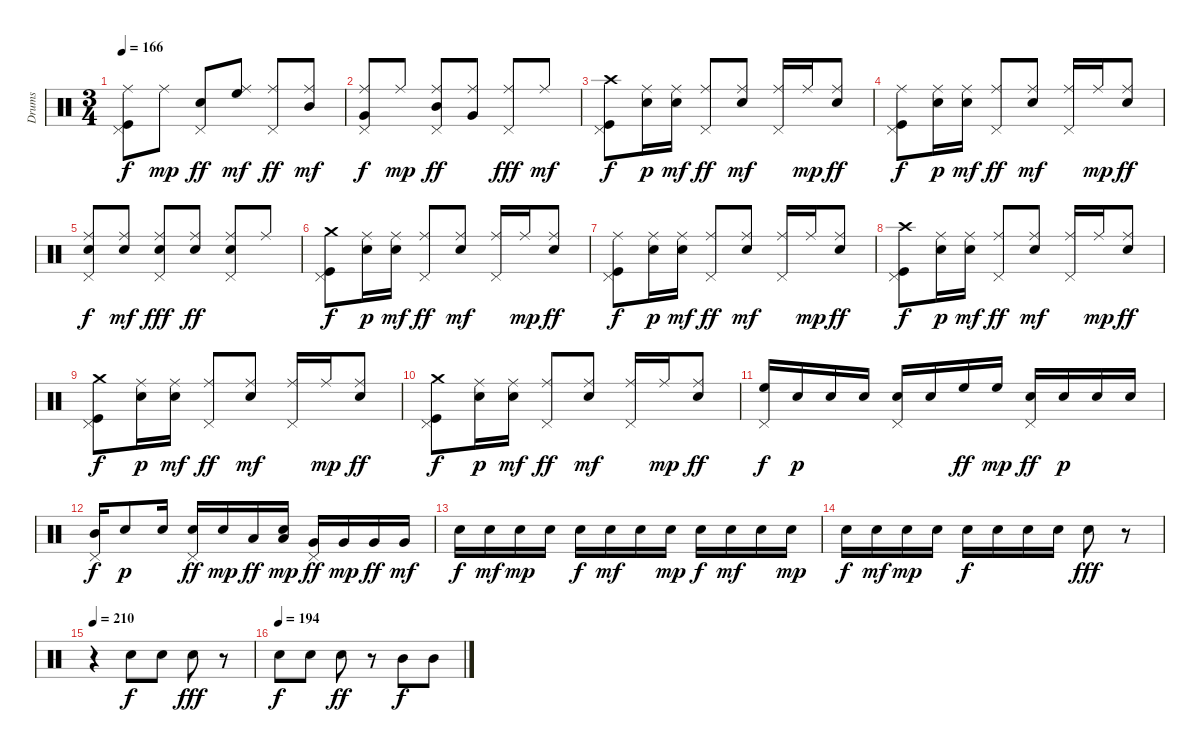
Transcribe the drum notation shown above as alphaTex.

\track ("Drums" "Drums") {instrument percussion}
\staff {score}
\articulation defaults
\ts (3 4)
\tempo 166
\clef neutral
\ks c
("Kick (hit)" "Pedal Hi-Hat (hit)" "Ride (middle)").8{dy f} "Ride (middle)".8{dy mp} ("Electric Snare (hit)" "Pedal Hi-Hat (hit)").8{dy ff} ("High Floor Tom (hit)" "Ride (middle)").8{dy mf} ("Pedal Hi-Hat (hit)" "Ride (middle)").8{dy ff} ("Mid Tom (hit)" "Ride (middle)").8{dy mf} |
("Very Low Tom (hit)" "Pedal Hi-Hat (hit)" "Ride (middle)").8{dy f} "Ride (middle)".8{dy mp} ("Mid Tom (hit)" "Pedal Hi-Hat (hit)" "Ride (middle)").8{dy ff} ("Very Low Tom (hit)" "Ride (middle)").8 ("Pedal Hi-Hat (hit)" "Ride (middle)").8{dy fff} "Ride (middle)".8{dy mf} |
("Kick (hit)" "Pedal Hi-Hat (hit)" "Crash high (hit)").8{dy f} ("Snare (hit) 2" "Ride (middle)").16{dy p} ("Snare (hit) 2" "Ride (middle)").16{dy mf} ("Pedal Hi-Hat (hit)" "Ride (middle)").8{dy ff} ("Electric Snare (hit)" "Ride (middle)").8{dy mf} ("Pedal Hi-Hat (hit)" "Ride (middle)").16 "Ride (middle)".16{dy mp} ("Snare (hit) 2" "Ride (middle)").8{dy ff} |
("Kick (hit)" "Pedal Hi-Hat (hit)" "Ride (middle)").8{dy f} ("Snare (hit) 2" "Ride (middle)").16{dy p} ("Snare (hit) 2" "Ride (middle)").16{dy mf} ("Pedal Hi-Hat (hit)" "Ride (middle)").8{dy ff} ("Electric Snare (hit)" "Ride (middle)").8{dy mf} ("Pedal Hi-Hat (hit)" "Ride (middle)").16 "Ride (middle)".16{dy mp} ("Snare (hit) 2" "Ride (middle)").8{dy ff} |
("Electric Snare (hit)" "Pedal Hi-Hat (hit)" "Ride (middle)").8{dy f} ("Electric Snare (hit)" "Ride (middle)").8{dy mf} ("Electric Snare (hit)" "Pedal Hi-Hat (hit)" "Ride (middle)").8{dy fff} ("Electric Snare (hit)" "Ride (middle)").8{dy ff} ("Electric Snare (hit)" "Pedal Hi-Hat (hit)" "Ride (middle)").8 "Ride (middle)".8 |
("Kick (hit)" "Pedal Hi-Hat (hit)" "Crash medium (hit)").8{dy f} ("Snare (hit) 2" "Ride (middle)").16{dy p} ("Snare (hit) 2" "Ride (middle)").16{dy mf} ("Pedal Hi-Hat (hit)" "Ride (middle)").8{dy ff} ("Electric Snare (hit)" "Ride (middle)").8{dy mf} ("Pedal Hi-Hat (hit)" "Ride (middle)").16 "Ride (middle)".16{dy mp} ("Snare (hit) 2" "Ride (middle)").8{dy ff} |
("Kick (hit)" "Pedal Hi-Hat (hit)" "Ride (middle)").8{dy f} ("Snare (hit) 2" "Ride (middle)").16{dy p} ("Snare (hit) 2" "Ride (middle)").16{dy mf} ("Pedal Hi-Hat (hit)" "Ride (middle)").8{dy ff} ("Electric Snare (hit)" "Ride (middle)").8{dy mf} ("Pedal Hi-Hat (hit)" "Ride (middle)").16 "Ride (middle)".16{dy mp} ("Snare (hit) 2" "Ride (middle)").8{dy ff} |
("Kick (hit)" "Pedal Hi-Hat (hit)" "Crash high (hit)").8{dy f} ("Snare (hit) 2" "Ride (middle)").16{dy p} ("Snare (hit) 2" "Ride (middle)").16{dy mf} ("Pedal Hi-Hat (hit)" "Ride (middle)").8{dy ff} ("Electric Snare (hit)" "Ride (middle)").8{dy mf} ("Pedal Hi-Hat (hit)" "Ride (middle)").16 "Ride (middle)".16{dy mp} ("Snare (hit) 2" "Ride (middle)").8{dy ff} |
("Kick (hit)" "Pedal Hi-Hat (hit)" "Crash medium (hit)").8{dy f} ("Snare (hit) 2" "Ride (middle)").16{dy p} ("Snare (hit) 2" "Ride (middle)").16{dy mf} ("Pedal Hi-Hat (hit)" "Ride (middle)").8{dy ff} ("Electric Snare (hit)" "Ride (middle)").8{dy mf} ("Pedal Hi-Hat (hit)" "Ride (middle)").16 "Ride (middle)".16{dy mp} ("Snare (hit) 2" "Ride (middle)").8{dy ff} |
("Kick (hit)" "Pedal Hi-Hat (hit)" "Crash medium (hit)").8{dy f} ("Snare (hit) 2" "Ride (middle)").16{dy p} ("Snare (hit) 2" "Ride (middle)").16{dy mf} ("Pedal Hi-Hat (hit)" "Ride (middle)").8{dy ff} ("Electric Snare (hit)" "Ride (middle)").8{dy mf} ("Pedal Hi-Hat (hit)" "Ride (middle)").16 "Ride (middle)".16{dy mp} ("Snare (hit) 2" "Ride (middle)").8{dy ff} |
("High Floor Tom (hit)" "Pedal Hi-Hat (hit)").16{dy f} "Snare (hit) 2".16{dy p} "Snare (hit) 2".16 "Snare (hit) 2".16 ("Snare (hit) 2" "Pedal Hi-Hat (hit)").16 "Snare (hit) 2".16 "High Floor Tom (hit)".16{dy ff} "High Floor Tom (hit)".16{dy mp} ("Snare (hit) 2" "Pedal Hi-Hat (hit)").16{dy ff} "Snare (hit) 2".16{dy p} "Snare (hit) 2".16 "Snare (hit) 2".16 |
("Mid Tom (hit)" "Pedal Hi-Hat (hit)").16{dy f} "Snare (hit) 2".8{dy p} "Snare (hit) 2".16 ("Snare (hit) 2" "Pedal Hi-Hat (hit)").16{dy ff} "Snare (hit) 2".16{dy mp} "Low Tom (hit)".16{dy ff} ("Snare (hit) 2" "Low Tom (hit)").16{dy mp} ("Very Low Tom (hit)" "Pedal Hi-Hat (hit)").16{dy ff} "Very Low Tom (hit)".16{dy mp} "Very Low Tom (hit)".16{dy ff} "Very Low Tom (hit)".16{dy mf} |
"Electric Snare (hit)".16{dy f} "Electric Snare (hit)".16{dy mf} "Electric Snare (hit)".16{dy mp} "Electric Snare (hit)".16 "Electric Snare (hit)".16{dy f} "Electric Snare (hit)".16{dy mf} "Electric Snare (hit)".16 "Electric Snare (hit)".16{dy mp} "Electric Snare (hit)".16{dy f} "Electric Snare (hit)".16{dy mf} "Electric Snare (hit)".16 "Electric Snare (hit)".16{dy mp} |
"Electric Snare (hit)".16{dy f} "Electric Snare (hit)".16{dy mf} "Electric Snare (hit)".16{dy mp} "Electric Snare (hit)".16 "Electric Snare (hit)".16{dy f} "Electric Snare (hit)".16 "Electric Snare (hit)".16 "Electric Snare (hit)".16 "Electric Snare (hit)".8{dy fff} r.8 |
\tempo 210
r.4 "Electric Snare (hit)".8{dy f} "Electric Snare (hit)".8 "Electric Snare (hit)".8{dy fff} r.8 |
\tempo (194)
"Electric Snare (hit)".8{dy f} "Electric Snare (hit)".8 "Electric Snare (hit)".8{dy ff} r.8 "Mid Tom (hit)".8{dy f} "Mid Tom (hit)".8
